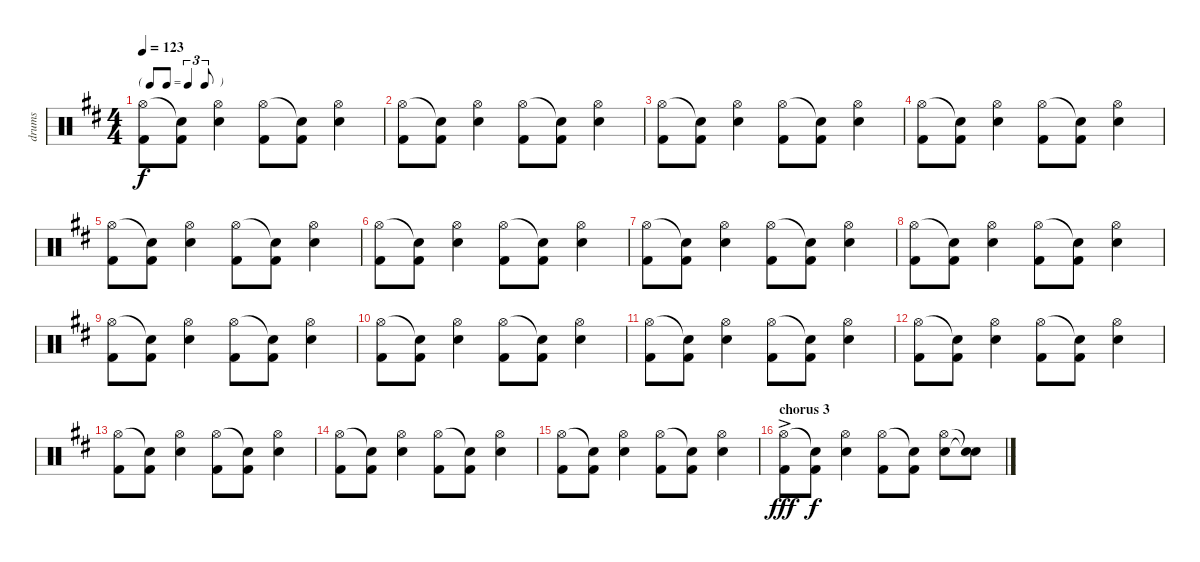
\track ("drums" "drums") {instrument percussion}
\staff {score}
\articulation defaults
\ts (4 4)
\tf triplet8th
\tempo 123
\clef neutral
\ks d
("Hi-Hat (open)" "Kick (hit) 2").8{dy f} ("Snare (hit)"{t} "Kick (hit) 2").8 ("Hi-Hat (open)" "Snare (hit) 2").4 ("Hi-Hat (open)" "Kick (hit) 2").8 ("Snare (hit)"{t} "Kick (hit) 2").8 ("Hi-Hat (open)" "Snare (hit) 2").4 |
("Hi-Hat (open)" "Kick (hit) 2").8 ("Snare (hit)"{t} "Kick (hit) 2").8 ("Hi-Hat (open)" "Snare (hit) 2").4 ("Hi-Hat (open)" "Kick (hit) 2").8 ("Snare (hit)"{t} "Kick (hit) 2").8 ("Hi-Hat (open)" "Snare (hit) 2").4 |
("Hi-Hat (open)" "Kick (hit) 2").8 ("Snare (hit)"{t} "Kick (hit) 2").8 ("Hi-Hat (open)" "Snare (hit) 2").4 ("Hi-Hat (open)" "Kick (hit) 2").8 ("Snare (hit)"{t} "Kick (hit) 2").8 ("Hi-Hat (open)" "Snare (hit) 2").4 |
("Hi-Hat (open)" "Kick (hit) 2").8 ("Snare (hit)"{t} "Kick (hit) 2").8 ("Hi-Hat (open)" "Snare (hit) 2").4 ("Hi-Hat (open)" "Kick (hit) 2").8 ("Snare (hit)"{t} "Kick (hit) 2").8 ("Hi-Hat (open)" "Snare (hit) 2").4 |
("Hi-Hat (open)" "Kick (hit) 2").8 ("Snare (hit)"{t} "Kick (hit) 2").8 ("Hi-Hat (open)" "Snare (hit) 2").4 ("Hi-Hat (open)" "Kick (hit) 2").8 ("Snare (hit)"{t} "Kick (hit) 2").8 ("Hi-Hat (open)" "Snare (hit) 2").4 |
("Hi-Hat (open)" "Kick (hit) 2").8 ("Snare (hit)"{t} "Kick (hit) 2").8 ("Hi-Hat (open)" "Snare (hit) 2").4 ("Hi-Hat (open)" "Kick (hit) 2").8 ("Snare (hit)"{t} "Kick (hit) 2").8 ("Hi-Hat (open)" "Snare (hit) 2").4 |
("Hi-Hat (open)" "Kick (hit) 2").8 ("Snare (hit)"{t} "Kick (hit) 2").8 ("Hi-Hat (open)" "Snare (hit) 2").4 ("Hi-Hat (open)" "Kick (hit) 2").8 ("Snare (hit)"{t} "Kick (hit) 2").8 ("Hi-Hat (open)" "Snare (hit) 2").4 |
("Hi-Hat (open)" "Kick (hit) 2").8 ("Snare (hit)"{t} "Kick (hit) 2").8 ("Hi-Hat (open)" "Snare (hit) 2").4 ("Hi-Hat (open)" "Kick (hit) 2").8 ("Snare (hit)"{t} "Kick (hit) 2").8 ("Hi-Hat (open)" "Snare (hit) 2").4 |
("Hi-Hat (open)" "Kick (hit) 2").8 ("Snare (hit)"{t} "Kick (hit) 2").8 ("Hi-Hat (open)" "Snare (hit) 2").4 ("Hi-Hat (open)" "Kick (hit) 2").8 ("Snare (hit)"{t} "Kick (hit) 2").8 ("Hi-Hat (open)" "Snare (hit) 2").4 |
("Hi-Hat (open)" "Kick (hit) 2").8 ("Snare (hit)"{t} "Kick (hit) 2").8 ("Hi-Hat (open)" "Snare (hit) 2").4 ("Hi-Hat (open)" "Kick (hit) 2").8 ("Snare (hit)"{t} "Kick (hit) 2").8 ("Hi-Hat (open)" "Snare (hit) 2").4 |
("Hi-Hat (open)" "Kick (hit) 2").8 ("Snare (hit)"{t} "Kick (hit) 2").8 ("Hi-Hat (open)" "Snare (hit) 2").4 ("Hi-Hat (open)" "Kick (hit) 2").8 ("Snare (hit)"{t} "Kick (hit) 2").8 ("Hi-Hat (open)" "Snare (hit) 2").4 |
("Hi-Hat (open)" "Kick (hit) 2").8 ("Snare (hit)"{t} "Kick (hit) 2").8 ("Hi-Hat (open)" "Snare (hit) 2").4 ("Hi-Hat (open)" "Kick (hit) 2").8 ("Snare (hit)"{t} "Kick (hit) 2").8 ("Hi-Hat (open)" "Snare (hit) 2").4 |
("Hi-Hat (open)" "Kick (hit) 2").8 ("Snare (hit)"{t} "Kick (hit) 2").8 ("Hi-Hat (open)" "Snare (hit) 2").4 ("Hi-Hat (open)" "Kick (hit) 2").8 ("Snare (hit)"{t} "Kick (hit) 2").8 ("Hi-Hat (open)" "Snare (hit) 2").4 |
("Hi-Hat (open)" "Kick (hit) 2").8 ("Snare (hit)"{t} "Kick (hit) 2").8 ("Hi-Hat (open)" "Snare (hit) 2").4 ("Hi-Hat (open)" "Kick (hit) 2").8 ("Snare (hit)"{t} "Kick (hit) 2").8 ("Hi-Hat (open)" "Snare (hit) 2").4 |
("Hi-Hat (open)" "Kick (hit) 2").8 ("Snare (hit)"{t} "Kick (hit) 2").8 ("Hi-Hat (open)" "Snare (hit) 2").4 ("Hi-Hat (open)" "Kick (hit) 2").8 ("Snare (hit)"{t} "Kick (hit) 2").8 ("Hi-Hat (open)" "Snare (hit) 2").4 |
\section ("" "chorus 3")
("Hi-Hat (open)"{ac} "Kick (hit) 2").8{dy fff} ("Snare (hit)"{t} "Kick (hit) 2").8{dy f} ("Hi-Hat (open)" "Snare (hit) 2").4 ("Hi-Hat (open)" "Kick (hit) 2").8 ("Snare (hit)"{t} "Kick (hit) 2").8 ("Hi-Hat (open)" "Snare (hit) 2").8 ("Snare (hit)"{t} "Snare (hit)"{t}).8
